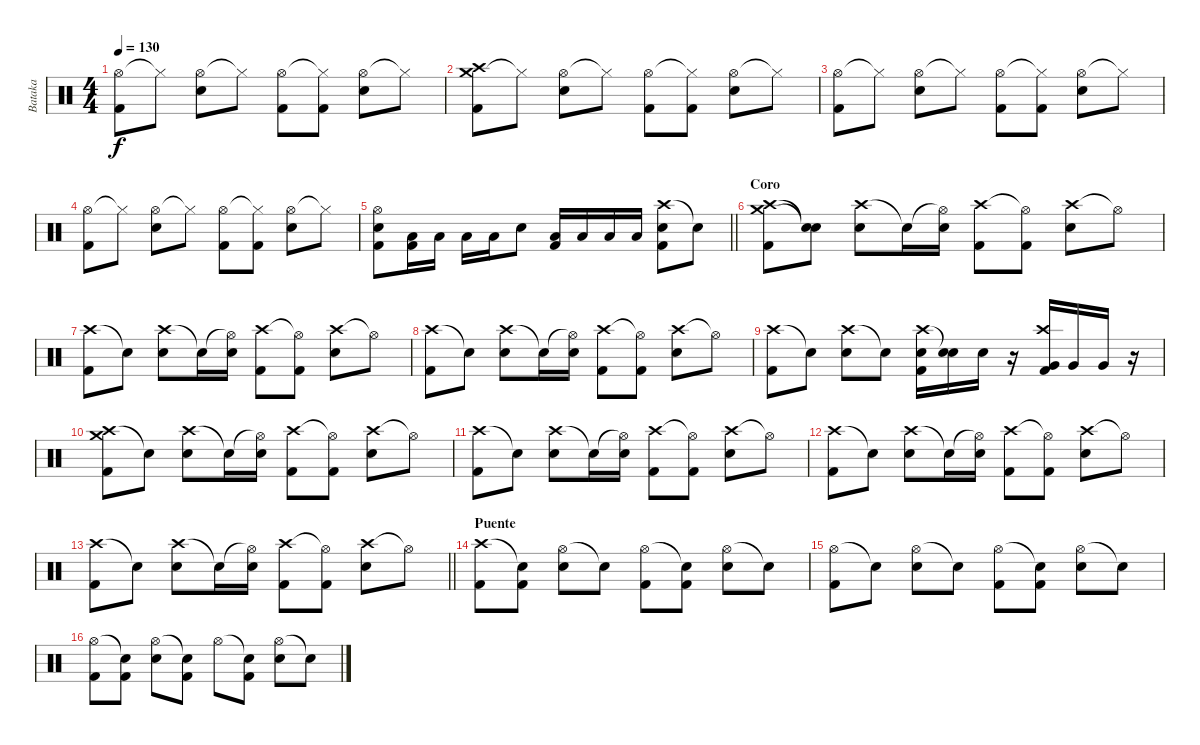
\track ("Bataka" "Bataka") {instrument percussion}
\staff {score}
\articulation defaults
\ts (4 4)
\tempo 130
\clef neutral
\ks c
("Hi-Hat (open)" "Kick (hit) 2").8{dy f} "Hi-Hat (closed)"{t}.8 ("Hi-Hat (open)" "Electric Snare (hit)").8 "Hi-Hat (closed)"{t}.8 ("Hi-Hat (open)" "Kick (hit) 2").8 ("Hi-Hat (closed)"{t} "Kick (hit) 2").8 ("Hi-Hat (open)" "Electric Snare (hit)").8 "Hi-Hat (closed)"{t}.8 |
("Crash medium (hit)" "Crash high (hit)" "Kick (hit) 2").8 "Hi-Hat (closed)"{t}.8 ("Hi-Hat (open)" "Electric Snare (hit)").8 "Hi-Hat (closed)"{t}.8 ("Hi-Hat (open)" "Kick (hit) 2").8 ("Hi-Hat (closed)"{t} "Kick (hit) 2").8 ("Hi-Hat (open)" "Electric Snare (hit)").8 "Hi-Hat (closed)"{t}.8 |
("Hi-Hat (open)" "Kick (hit) 2").8 "Hi-Hat (closed)"{t}.8 ("Hi-Hat (open)" "Electric Snare (hit)").8 "Hi-Hat (closed)"{t}.8 ("Hi-Hat (open)" "Kick (hit) 2").8 ("Hi-Hat (closed)"{t} "Kick (hit) 2").8 ("Hi-Hat (open)" "Electric Snare (hit)").8 "Hi-Hat (closed)"{t}.8 |
("Hi-Hat (open)" "Kick (hit) 2").8 "Hi-Hat (closed)"{t}.8 ("Hi-Hat (open)" "Electric Snare (hit)").8 "Hi-Hat (closed)"{t}.8 ("Hi-Hat (open)" "Kick (hit) 2").8 ("Hi-Hat (closed)"{t} "Kick (hit) 2").8 ("Hi-Hat (open)" "Electric Snare (hit)").8 "Hi-Hat (closed)"{t}.8 |
\barLineRight lightlight
("Hi-Hat (open)" "Electric Snare (hit)" "Kick (hit) 2").8 ("Low Floor Tom (hit)" "Kick (hit) 2").16 "Low Floor Tom (hit)".16 "Low Floor Tom (hit)".16 "Low Floor Tom (hit)".16 "Electric Snare (hit)".8 ("Low Floor Tom (hit)" "Kick (hit) 2").16 "Low Floor Tom (hit)".16 "Low Floor Tom (hit)".16 "Low Floor Tom (hit)".16 ("Crash high (hit)" "Electric Snare (hit)" "Kick (hit) 2").8 "Snare (hit)"{t}.8 |
\section ("" "Coro")
("Crash medium (hit)" "Crash high (hit)" "Kick (hit) 2").8 ("Snare (hit)"{t} "Snare (hit)"{t}).8 ("Crash high (hit)" "Electric Snare (hit)").8 "Snare (hit)"{t}.16 ("Hi-Hat (open)"{t} "Electric Snare (hit)").16 ("Crash high (hit)" "Kick (hit) 2").8 ("Hi-Hat (open)"{t} "Kick (hit) 2").8 ("Crash high (hit)" "Electric Snare (hit)").8 "Hi-Hat (open)"{t}.8 |
("Crash high (hit)" "Kick (hit) 2").8 "Snare (hit)"{t}.8 ("Crash high (hit)" "Electric Snare (hit)").8 "Snare (hit)"{t}.16 ("Hi-Hat (open)"{t} "Electric Snare (hit)").16 ("Crash high (hit)" "Kick (hit) 2").8 ("Hi-Hat (open)"{t} "Kick (hit) 2").8 ("Crash high (hit)" "Electric Snare (hit)").8 "Hi-Hat (open)"{t}.8 |
("Crash high (hit)" "Kick (hit) 2").8 "Snare (hit)"{t}.8 ("Crash high (hit)" "Electric Snare (hit)").8 "Snare (hit)"{t}.16 ("Hi-Hat (open)"{t} "Electric Snare (hit)").16 ("Crash high (hit)" "Kick (hit) 2").8 ("Hi-Hat (open)"{t} "Kick (hit) 2").8 ("Crash high (hit)" "Electric Snare (hit)").8 "Hi-Hat (open)"{t}.8 |
("Crash high (hit)" "Kick (hit) 2").8 "Snare (hit)"{t}.8 ("Crash high (hit)" "Electric Snare (hit)").8 "Snare (hit)"{t}.8 ("Crash high (hit)" "Electric Snare (hit)" "Kick (hit) 2").16 ("Snare (hit)"{t} "Electric Snare (hit)").16 "Electric Snare (hit)".16 r.16 ("Crash high (hit)" "Very Low Tom (hit)" "Kick (hit) 2").16 "Very Low Tom (hit)".16 "Very Low Tom (hit)".16 r.16 |
("Crash high (hit)" "Crash medium (hit)" "Kick (hit) 2").8 "Snare (hit)"{t}.8 ("Crash high (hit)" "Electric Snare (hit)").8 "Snare (hit)"{t}.16 ("Hi-Hat (open)"{t} "Electric Snare (hit)").16 ("Crash high (hit)" "Kick (hit) 2").8 ("Hi-Hat (open)"{t} "Kick (hit) 2").8 ("Crash high (hit)" "Electric Snare (hit)").8 "Hi-Hat (open)"{t}.8 |
("Crash high (hit)" "Kick (hit) 2").8 "Snare (hit)"{t}.8 ("Crash high (hit)" "Electric Snare (hit)").8 "Snare (hit)"{t}.16 ("Hi-Hat (open)"{t} "Electric Snare (hit)").16 ("Crash high (hit)" "Kick (hit) 2").8 ("Hi-Hat (open)"{t} "Kick (hit) 2").8 ("Crash high (hit)" "Electric Snare (hit)").8 "Hi-Hat (open)"{t}.8 |
("Crash high (hit)" "Kick (hit) 2").8 "Snare (hit)"{t}.8 ("Crash high (hit)" "Electric Snare (hit)").8 "Snare (hit)"{t}.16 ("Hi-Hat (open)"{t} "Electric Snare (hit)").16 ("Crash high (hit)" "Kick (hit) 2").8 ("Hi-Hat (open)"{t} "Kick (hit) 2").8 ("Crash high (hit)" "Electric Snare (hit)").8 "Hi-Hat (open)"{t}.8 |
\barLineRight lightlight
("Crash high (hit)" "Kick (hit) 2").8 "Snare (hit)"{t}.8 ("Crash high (hit)" "Electric Snare (hit)").8 "Snare (hit)"{t}.16 ("Hi-Hat (open)"{t} "Electric Snare (hit)").16 ("Crash high (hit)" "Kick (hit) 2").8 ("Hi-Hat (open)"{t} "Kick (hit) 2").8 ("Crash high (hit)" "Electric Snare (hit)").8 "Hi-Hat (open)"{t}.8 |
\section ("" "Puente")
("Crash high (hit)" "Kick (hit) 2").8 ("Snare (hit)"{t} "Kick (hit) 2").8 ("Hi-Hat (open)" "Electric Snare (hit)").8 "Snare (hit)"{t}.8 ("Hi-Hat (open)" "Kick (hit) 2").8 ("Snare (hit)"{t} "Kick (hit) 2").8 ("Hi-Hat (open)" "Electric Snare (hit)").8 "Snare (hit)"{t}.8 |
("Hi-Hat (open)" "Kick (hit) 2").8 "Snare (hit)"{t}.8 ("Hi-Hat (open)" "Electric Snare (hit)").8 "Snare (hit)"{t}.8 ("Hi-Hat (open)" "Kick (hit) 2").8 ("Snare (hit)"{t} "Kick (hit) 2").8 ("Hi-Hat (open)" "Electric Snare (hit)").8 "Snare (hit)"{t}.8 |
("Hi-Hat (open)" "Kick (hit) 2").8 ("Snare (hit)"{t} "Kick (hit) 2").8 ("Hi-Hat (open)" "Electric Snare (hit)").8 ("Snare (hit)"{t} "Kick (hit) 2").8 "Hi-Hat (open)".8 ("Snare (hit)"{t} "Kick (hit) 2").8 ("Hi-Hat (open)" "Electric Snare (hit)").8 "Snare (hit)"{t}.8{volume 0}
